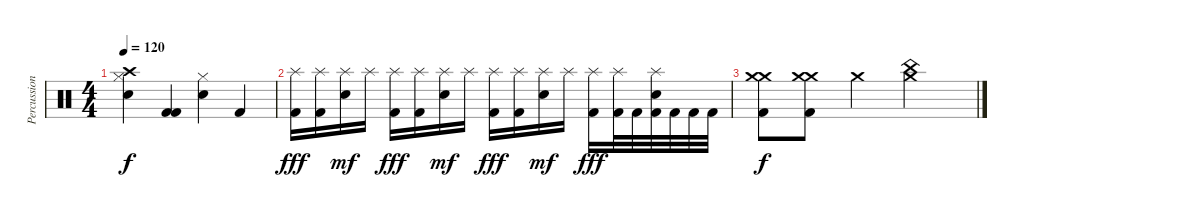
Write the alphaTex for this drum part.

\track ("Percussions" "Percussion") {instrument percussion}
\staff {score}
\articulation defaults
\ts (4 4)
\tempo 120
\clef neutral
\ks c
("Crash high (hit)" "Electric Snare (hit)" "Hi-Hat (closed)").4{dy f} ("Kick (hit) 2" "Kick (hit) 2").4 ("Electric Snare (hit)" "Hi-Hat (closed)").4 "Kick (hit) 2".4 |
("Splash (hit)" "Kick (hit) 2").16{dy fff} ("Splash (hit)" "Kick (hit) 2").16 ("Splash (hit)" "Electric Snare (hit)").16{dy mf} "Splash (hit)".16 ("Splash (hit)" "Kick (hit) 2").16{dy fff} ("Splash (hit)" "Kick (hit) 2").16 ("Splash (hit)" "Electric Snare (hit)").16{dy mf} "Splash (hit)".16 ("Splash (hit)" "Kick (hit) 2").16{dy fff} ("Splash (hit)" "Kick (hit) 2").16 ("Splash (hit)" "Electric Snare (hit)").16{dy mf} "Splash (hit)".16 ("Splash (hit)" "Kick (hit) 2").16{dy fff} ("Splash (hit)" "Kick (hit) 2").32 "Kick (hit) 2".32 ("Splash (hit)" "Electric Snare (hit)" "Kick (hit) 2").32 "Kick (hit) 2".32 "Kick (hit) 2".32 "Kick (hit) 2".32 |
("Crash medium (hit)" "Crash medium (hit)" "Kick (hit) 2").8{dy f} ("Crash medium (hit)" "Crash medium (hit)" "Kick (hit) 2").8 "Crash medium (hit)".4 ("China (hit)" "Crash medium (hit)").2
